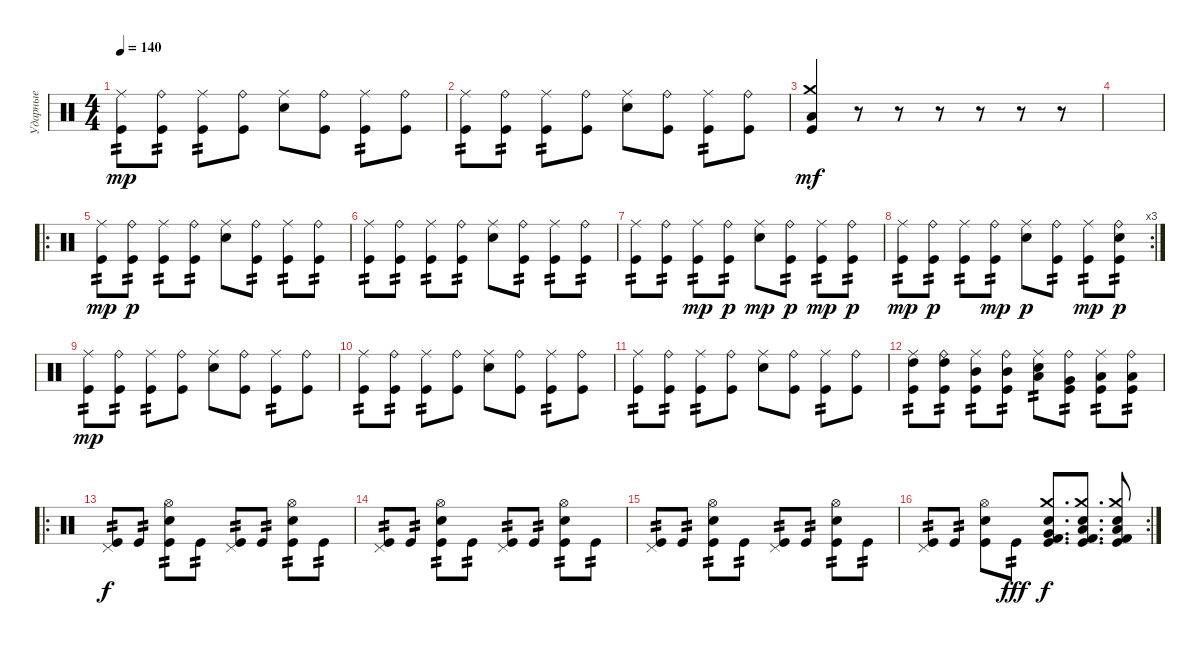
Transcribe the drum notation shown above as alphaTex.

\track ("Ударные" "Ударные") {instrument percussion}
\staff {score}
\articulation defaults
\ts (4 4)
\tempo 140
\clef neutral
\ks c
("Ride (middle)" "Kick (hit)").8{tp 2 dy mp} ("Ride (bell)" "Kick (hit)").8{tp 2} ("Ride (middle)" "Kick (hit)").8{tp 2} ("Ride (bell)" "Kick (hit)").8 ("Ride (middle)" "Electric Snare (hit)").8 ("Ride (bell)" "Kick (hit)").8 ("Ride (middle)" "Kick (hit)").8{tp 2} ("Ride (bell)" "Kick (hit)").8 |
("Ride (middle)" "Kick (hit)").8{tp 2} ("Ride (bell)" "Kick (hit)").8{tp 2} ("Ride (middle)" "Kick (hit)").8{tp 2} ("Ride (bell)" "Kick (hit)").8 ("Ride (middle)" "Electric Snare (hit)").8 ("Ride (bell)" "Kick (hit)").8 ("Ride (middle)" "Kick (hit)").8{tp 2} ("Ride (bell)" "Kick (hit)").8 |
("Crash medium (hit)" "Low Floor Tom (hit)" "Kick (hit)").4{dy mf} r.8 r.8 r.8 r.8 r.8 r.8 |
|
\ro
("Ride (middle)" "Kick (hit)").8{tp 2 dy mp} ("Ride (bell)" "Kick (hit)").8{tp 2 dy p} ("Ride (middle)" "Kick (hit)").8{tp 2} ("Ride (bell)" "Kick (hit)").8{tp 2} ("Ride (middle)" "Electric Snare (hit)").8 ("Ride (bell)" "Kick (hit)").8{tp 2} ("Ride (middle)" "Kick (hit)").8{tp 2} ("Ride (bell)" "Kick (hit)").8{tp 2} |
("Ride (middle)" "Kick (hit)").8{tp 2} ("Ride (bell)" "Kick (hit)").8{tp 2} ("Ride (middle)" "Kick (hit)").8{tp 2} ("Ride (bell)" "Kick (hit)").8{tp 2} ("Ride (middle)" "Electric Snare (hit)").8 ("Ride (bell)" "Kick (hit)").8{tp 2} ("Ride (middle)" "Kick (hit)").8{tp 2} ("Ride (bell)" "Kick (hit)").8{tp 2} |
("Ride (middle)" "Kick (hit)").8{tp 2} ("Ride (bell)" "Kick (hit)").8{tp 2} ("Ride (middle)" "Kick (hit)").8{tp 2 dy mp} ("Ride (bell)" "Kick (hit)").8{tp 2 dy p} ("Ride (middle)" "Electric Snare (hit)").8{dy mp} ("Ride (bell)" "Kick (hit)").8{tp 2 dy p} ("Ride (middle)" "Kick (hit)").8{tp 2 dy mp} ("Ride (bell)" "Kick (hit)").8{tp 2 dy p} |
\rc 3
("Ride (middle)" "Kick (hit)").8{tp 2 dy mp} ("Ride (bell)" "Kick (hit)").8{tp 2 dy p} ("Ride (middle)" "Kick (hit)").8{tp 2} ("Ride (bell)" "Kick (hit)").8{tp 2 dy mp} ("Ride (middle)" "Electric Snare (hit)").8{dy p} ("Ride (bell)" "Kick (hit)").8{tp 2} ("Ride (middle)" "Kick (hit)").8{tp 2 dy mp} ("Ride (bell)" "Electric Snare (hit)" "Kick (hit)").8{tp 2 dy p} |
("Ride (middle)" "Kick (hit)").8{tp 2 dy mp} ("Ride (bell)" "Kick (hit)").8{tp 2} ("Ride (middle)" "Kick (hit)").8{tp 2} ("Ride (bell)" "Kick (hit)").8 ("Ride (middle)" "Electric Snare (hit)").8 ("Ride (bell)" "Kick (hit)").8 ("Ride (middle)" "Kick (hit)").8{tp 2} ("Ride (bell)" "Kick (hit)").8 |
("Ride (middle)" "Kick (hit)").8{tp 2} ("Ride (bell)" "Kick (hit)").8{tp 2} ("Ride (middle)" "Kick (hit)").8{tp 2} ("Ride (bell)" "Kick (hit)").8 ("Ride (middle)" "Electric Snare (hit)").8 ("Ride (bell)" "Kick (hit)").8 ("Ride (middle)" "Kick (hit)").8{tp 2} ("Ride (bell)" "Kick (hit)").8 |
("Ride (middle)" "Kick (hit)").8{tp 2} ("Ride (bell)" "Kick (hit)").8{tp 2} ("Ride (middle)" "Kick (hit)").8{tp 2} ("Ride (bell)" "Kick (hit)").8 ("Ride (middle)" "Electric Snare (hit)").8 ("Ride (bell)" "Kick (hit)").8 ("Ride (middle)" "Kick (hit)").8{tp 2} ("Ride (bell)" "Kick (hit)").8 |
("High Tom (hit)" "Ride (middle)" "Kick (hit)").8{tp 2} ("High Tom (hit)" "Ride (bell)" "Kick (hit)").8{tp 2} ("Mid Tom (hit)" "Ride (middle)" "Kick (hit)").8{tp 2} ("Mid Tom (hit)" "Ride (bell)" "Kick (hit)").8{tp 2} ("Low Tom (hit)" "Ride (middle)" "Electric Snare (hit)").8{tp 2} ("Very Low Tom (hit)" "Ride (bell)" "Kick (hit)").8{tp 2} ("Low Floor Tom (hit)" "Ride (middle)" "Kick (hit)").8{tp 2} ("Low Floor Tom (hit)" "Ride (bell)" "Kick (hit)").8{tp 2} |
\ro
("Pedal Hi-Hat (hit)" "Kick (hit)").8{tp 2 dy f} "Kick (hit)".8{tp 2} ("Hi-Hat (open)" "Electric Snare (hit)" "Kick (hit)").8{tp 2} "Kick (hit)".8{tp 2} ("Pedal Hi-Hat (hit)" "Kick (hit)").8{tp 2} "Kick (hit)".8{tp 2} ("Hi-Hat (open)" "Electric Snare (hit)" "Kick (hit)").8{tp 2} "Kick (hit)".8{tp 2} |
("Pedal Hi-Hat (hit)" "Kick (hit)").8{tp 2} "Kick (hit)".8{tp 2} ("Hi-Hat (open)" "Electric Snare (hit)" "Kick (hit)").8{tp 2} "Kick (hit)".8{tp 2} ("Pedal Hi-Hat (hit)" "Kick (hit)").8{tp 2} "Kick (hit)".8{tp 2} ("Hi-Hat (open)" "Electric Snare (hit)" "Kick (hit)").8{tp 2} "Kick (hit)".8{tp 2} |
("Pedal Hi-Hat (hit)" "Kick (hit)").8{tp 2} "Kick (hit)".8{tp 2} ("Hi-Hat (open)" "Electric Snare (hit)" "Kick (hit)").8{tp 2} "Kick (hit)".8{tp 2} ("Pedal Hi-Hat (hit)" "Kick (hit)").8{tp 2} "Kick (hit)".8{tp 2} ("Hi-Hat (open)" "Electric Snare (hit)" "Kick (hit)").8{tp 2} "Kick (hit)".8{tp 2} |
\rc 2
("Pedal Hi-Hat (hit)" "Kick (hit)").8{tp 2} "Kick (hit)".8{tp 2} ("Hi-Hat (open)" "Electric Snare (hit)" "Kick (hit)").8 "Kick (hit)".8{tp 2 dy fff} ("Kick (hit) 2" "Crash medium (hit)" "Very Low Tom (hit)" "Electric Snare (hit)" "Kick (hit)").8{d dy f} ("Kick (hit) 2" "Crash medium (hit)" "Low Floor Tom (hit)" "Electric Snare (hit)" "Kick (hit)").8{d} ("Kick (hit) 2" "Crash medium (hit)" "Low Floor Tom (hit)" "Electric Snare (hit)" "Kick (hit)").8
